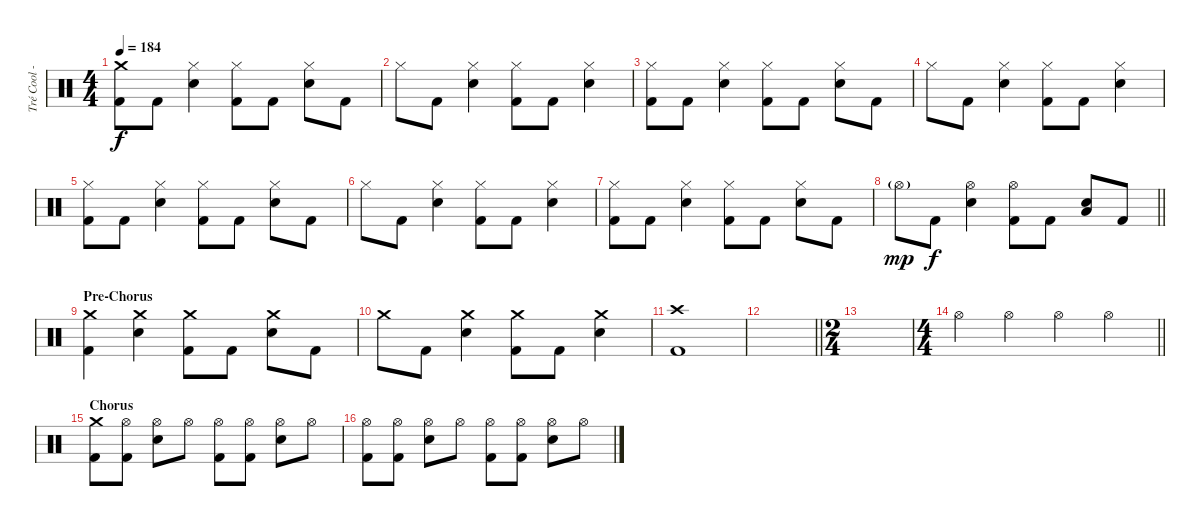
\track ("Tré Cool - Drums" "Tré Cool -") {instrument percussion}
\staff {score}
\articulation defaults
\ts (4 4)
\tempo 184
\clef neutral
\ks c
("Crash medium (hit)" "Kick (hit) 2").8{dy f} "Kick (hit) 2".8 ("Hi-Hat (closed)" "Electric Snare (hit)").4 ("Hi-Hat (closed)" "Kick (hit) 2").8 "Kick (hit) 2".8 ("Hi-Hat (closed)" "Electric Snare (hit)").8 "Kick (hit) 2".8 |
"Hi-Hat (closed)".8 "Kick (hit) 2".8 ("Hi-Hat (closed)" "Electric Snare (hit)").4 ("Hi-Hat (closed)" "Kick (hit) 2").8 "Kick (hit) 2".8 ("Hi-Hat (closed)" "Electric Snare (hit)").4 |
("Hi-Hat (closed)" "Kick (hit) 2").8 "Kick (hit) 2".8 ("Hi-Hat (closed)" "Electric Snare (hit)").4 ("Hi-Hat (closed)" "Kick (hit) 2").8 "Kick (hit) 2".8 ("Hi-Hat (closed)" "Electric Snare (hit)").8 "Kick (hit) 2".8 |
"Hi-Hat (closed)".8 "Kick (hit) 2".8 ("Hi-Hat (closed)" "Electric Snare (hit)").4 ("Hi-Hat (closed)" "Kick (hit) 2").8 "Kick (hit) 2".8 ("Hi-Hat (closed)" "Electric Snare (hit)").4 |
("Hi-Hat (closed)" "Kick (hit) 2").8 "Kick (hit) 2".8 ("Hi-Hat (closed)" "Electric Snare (hit)").4 ("Hi-Hat (closed)" "Kick (hit) 2").8 "Kick (hit) 2".8 ("Hi-Hat (closed)" "Electric Snare (hit)").8 "Kick (hit) 2".8 |
"Hi-Hat (closed)".8 "Kick (hit) 2".8 ("Hi-Hat (closed)" "Electric Snare (hit)").4 ("Hi-Hat (closed)" "Kick (hit) 2").8 "Kick (hit) 2".8 ("Hi-Hat (closed)" "Electric Snare (hit)").4 |
("Hi-Hat (closed)" "Kick (hit) 2").8 "Kick (hit) 2".8 ("Hi-Hat (closed)" "Electric Snare (hit)").4 ("Hi-Hat (closed)" "Kick (hit) 2").8 "Kick (hit) 2".8 ("Hi-Hat (closed)" "Electric Snare (hit)").8 "Kick (hit) 2".8 |
\barLineRight lightlight "Hi-Hat (open)"{g}.8{dy mp} "Kick (hit) 2".8{dy f}
("Hi-Hat (open)" "Electric Snare (hit)").4 ("Hi-Hat (open)" "Kick (hit) 2").8 "Kick (hit) 2".8 ("Low Tom (hit)" "Electric Snare (hit)").8 "Kick (hit) 2".8 |
\section ("" "Pre-Chorus")
("Crash medium (hit)" "Kick (hit) 2").4 ("Crash medium (hit)" "Electric Snare (hit)").4 ("Crash medium (hit)" "Kick (hit) 2").8 "Kick (hit) 2".8 ("Crash medium (hit)" "Electric Snare (hit)").8 "Kick (hit) 2".8 |
"Crash medium (hit)".8 "Kick (hit) 2".8 ("Crash medium (hit)" "Electric Snare (hit)").4 ("Crash medium (hit)" "Kick (hit) 2").8 "Kick (hit) 2".8 ("Crash medium (hit)" "Electric Snare (hit)").4 |
("Crash high (hit)" "Kick (hit) 2").1 |
\barLineRight lightlight
|
\ts (2 4)
|
\ts (4 4)
\barLineRight lightlight "Hi-Hat (open)".4{volume 12 balance 2} "Hi-Hat (open)".4 "Hi-Hat (open)".4 "Hi-Hat (open)".4
|
\section ("" "Chorus")
("Crash medium (hit)" "Kick (hit) 2").8{volume 11} ("Hi-Hat (open)" "Kick (hit) 2").8 ("Hi-Hat (open)" "Electric Snare (hit)").8 "Hi-Hat (open)".8 ("Hi-Hat (open)" "Kick (hit) 2").8 ("Hi-Hat (open)" "Kick (hit) 2").8 ("Hi-Hat (open)" "Electric Snare (hit)").8 "Hi-Hat (open)".8 |
("Hi-Hat (open)" "Kick (hit) 2").8 ("Hi-Hat (open)" "Kick (hit) 2").8 ("Hi-Hat (open)" "Electric Snare (hit)").8 "Hi-Hat (open)".8 ("Hi-Hat (open)" "Kick (hit) 2").8 ("Hi-Hat (open)" "Kick (hit) 2").8 ("Hi-Hat (open)" "Electric Snare (hit)").8 "Hi-Hat (open)".8
